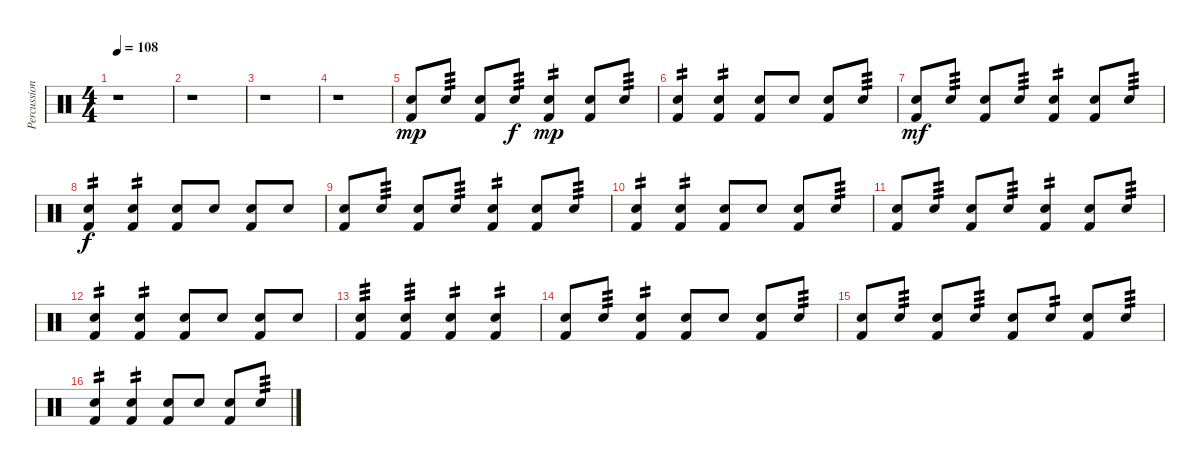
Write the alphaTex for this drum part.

\track ("Percussion" "Percussion") {instrument percussion}
\staff {score}
\articulation defaults
\ts (4 4)
\tempo 108
\clef neutral
\ks c
r.1{dy mp} |
r.1 |
r.1 |
r.1 |
("Kick (hit) 2" "Snare (hit) 2").8 "Snare (hit) 2".8{tp 3} ("Kick (hit) 2" "Snare (hit) 2").8 "Snare (hit) 2".8{tp 3 dy f} ("Kick (hit) 2" "Snare (hit) 2").4{tp 2 dy mp} ("Kick (hit) 2" "Snare (hit) 2").8 "Snare (hit) 2".8{tp 3} |
("Kick (hit) 2" "Snare (hit) 2").4{tp 2} ("Kick (hit) 2" "Snare (hit) 2").4{tp 2} ("Kick (hit) 2" "Snare (hit) 2").8 "Snare (hit) 2".8 ("Kick (hit) 2" "Snare (hit) 2").8 "Snare (hit) 2".8{tp 3} |
("Kick (hit) 2" "Snare (hit) 2").8{dy mf} "Snare (hit) 2".8{tp 3} ("Kick (hit) 2" "Snare (hit) 2").8 "Snare (hit) 2".8{tp 3} ("Kick (hit) 2" "Snare (hit) 2").4{tp 2} ("Kick (hit) 2" "Snare (hit) 2").8 "Snare (hit) 2".8{tp 3} |
("Kick (hit) 2" "Snare (hit) 2").4{tp 2 dy f} ("Kick (hit) 2" "Snare (hit) 2").4{tp 2} ("Kick (hit) 2" "Snare (hit) 2").8 "Snare (hit) 2".8 ("Kick (hit) 2" "Snare (hit) 2").8 "Snare (hit) 2".8 |
("Kick (hit) 2" "Snare (hit) 2").8 "Snare (hit) 2".8{tp 3} ("Kick (hit) 2" "Snare (hit) 2").8 "Snare (hit) 2".8{tp 3} ("Kick (hit) 2" "Snare (hit) 2").4{tp 2} ("Kick (hit) 2" "Snare (hit) 2").8 "Snare (hit) 2".8{tp 3} |
("Kick (hit) 2" "Snare (hit) 2").4{tp 2} ("Kick (hit) 2" "Snare (hit) 2").4{tp 2} ("Kick (hit) 2" "Snare (hit) 2").8 "Snare (hit) 2".8 ("Kick (hit) 2" "Snare (hit) 2").8 "Snare (hit) 2".8{tp 3} |
("Kick (hit) 2" "Snare (hit) 2").8 "Snare (hit) 2".8{tp 3} ("Kick (hit) 2" "Snare (hit) 2").8 "Snare (hit) 2".8{tp 3} ("Kick (hit) 2" "Snare (hit) 2").4{tp 2} ("Kick (hit) 2" "Snare (hit) 2").8 "Snare (hit) 2".8{tp 3} |
("Kick (hit) 2" "Snare (hit) 2").4{tp 2} ("Kick (hit) 2" "Snare (hit) 2").4{tp 2} ("Kick (hit) 2" "Snare (hit) 2").8 "Snare (hit) 2".8 ("Kick (hit) 2" "Snare (hit) 2").8 "Snare (hit) 2".8 |
("Kick (hit) 2" "Snare (hit) 2").4{tp 3} ("Kick (hit) 2" "Snare (hit) 2").4{tp 3} ("Kick (hit) 2" "Snare (hit) 2").4{tp 2} ("Kick (hit) 2" "Snare (hit) 2").4{tp 2} |
("Kick (hit) 2" "Snare (hit) 2").8 "Snare (hit) 2".8{tp 3} ("Kick (hit) 2" "Snare (hit) 2").4{tp 2} ("Kick (hit) 2" "Snare (hit) 2").8 "Snare (hit) 2".8 ("Kick (hit) 2" "Snare (hit) 2").8 "Snare (hit) 2".8{tp 3} |
("Kick (hit) 2" "Snare (hit) 2").8 "Snare (hit) 2".8{tp 3} ("Kick (hit) 2" "Snare (hit) 2").8 "Snare (hit) 2".8{tp 3} ("Kick (hit) 2" "Snare (hit) 2").8 "Snare (hit) 2".8{tp 2} ("Kick (hit) 2" "Snare (hit) 2").8 "Snare (hit) 2".8{tp 3} |
("Kick (hit) 2" "Snare (hit) 2").4{tp 2} ("Kick (hit) 2" "Snare (hit) 2").4{tp 2} ("Kick (hit) 2" "Snare (hit) 2").8 "Snare (hit) 2".8 ("Kick (hit) 2" "Snare (hit) 2").8 "Snare (hit) 2".8{tp 3}
